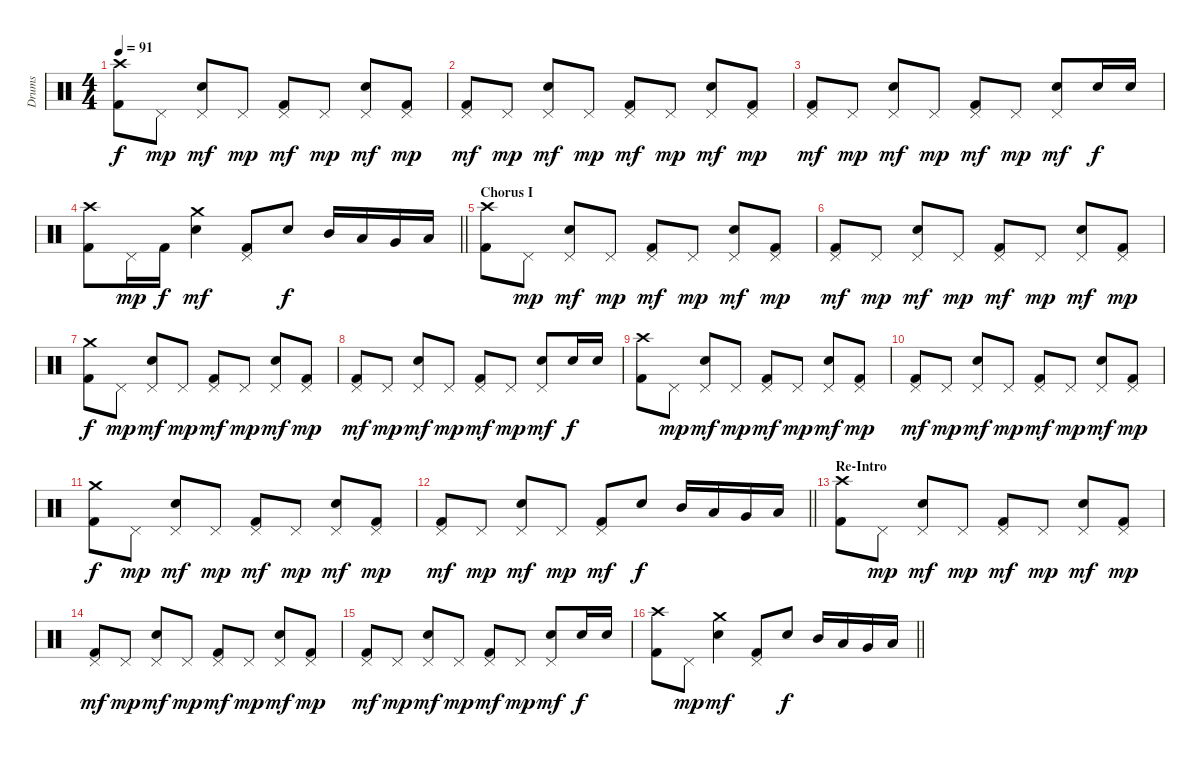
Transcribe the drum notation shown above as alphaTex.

\track ("Drums" "Drums") {instrument percussion}
\staff {score}
\articulation defaults
\ts (4 4)
\tempo 91
\clef neutral
\ks c
("Crash high (hit)" "Kick (hit) 2").8{dy f} "Pedal Hi-Hat (hit)".8{dy mp} ("Pedal Hi-Hat (hit)" "Snare (hit) 2").8{dy mf} "Pedal Hi-Hat (hit)".8{dy mp} ("Pedal Hi-Hat (hit)" "Kick (hit) 2").8{dy mf} "Pedal Hi-Hat (hit)".8{dy mp} ("Pedal Hi-Hat (hit)" "Snare (hit) 2").8{dy mf} ("Pedal Hi-Hat (hit)" "Kick (hit) 2").8{dy mp} |
("Pedal Hi-Hat (hit)" "Kick (hit) 2").8{dy mf} "Pedal Hi-Hat (hit)".8{dy mp} ("Pedal Hi-Hat (hit)" "Snare (hit) 2").8{dy mf} "Pedal Hi-Hat (hit)".8{dy mp} ("Pedal Hi-Hat (hit)" "Kick (hit) 2").8{dy mf} "Pedal Hi-Hat (hit)".8{dy mp} ("Pedal Hi-Hat (hit)" "Snare (hit) 2").8{dy mf} ("Pedal Hi-Hat (hit)" "Kick (hit) 2").8{dy mp} |
("Pedal Hi-Hat (hit)" "Kick (hit) 2").8{dy mf} "Pedal Hi-Hat (hit)".8{dy mp} ("Pedal Hi-Hat (hit)" "Snare (hit) 2").8{dy mf} "Pedal Hi-Hat (hit)".8{dy mp} ("Pedal Hi-Hat (hit)" "Kick (hit) 2").8{dy mf} "Pedal Hi-Hat (hit)".8{dy mp} ("Pedal Hi-Hat (hit)" "Snare (hit) 2").8{dy mf} "Snare (hit) 2".16{dy f} "Snare (hit) 2".16 |
\barLineRight lightlight
("Crash high (hit)" "Kick (hit) 2").8 "Pedal Hi-Hat (hit)".16{dy mp} "Kick (hit) 2".16{dy f} ("Crash medium (hit)" "Snare (hit) 2").4{dy mf} ("Pedal Hi-Hat (hit)" "Kick (hit) 2").8 "Snare (hit) 2".8{dy f} "Mid Tom (hit)".16 "Low Tom (hit)".16 "Very Low Tom (hit)".16 "Low Floor Tom (hit)".16 |
\section ("" "Chorus I")
("Crash high (hit)" "Kick (hit) 2").8 "Pedal Hi-Hat (hit)".8{dy mp} ("Pedal Hi-Hat (hit)" "Snare (hit) 2").8{dy mf} "Pedal Hi-Hat (hit)".8{dy mp} ("Pedal Hi-Hat (hit)" "Kick (hit) 2").8{dy mf} "Pedal Hi-Hat (hit)".8{dy mp} ("Pedal Hi-Hat (hit)" "Snare (hit) 2").8{dy mf} ("Pedal Hi-Hat (hit)" "Kick (hit) 2").8{dy mp} |
("Pedal Hi-Hat (hit)" "Kick (hit) 2").8{dy mf} "Pedal Hi-Hat (hit)".8{dy mp} ("Pedal Hi-Hat (hit)" "Snare (hit) 2").8{dy mf} "Pedal Hi-Hat (hit)".8{dy mp} ("Pedal Hi-Hat (hit)" "Kick (hit) 2").8{dy mf} "Pedal Hi-Hat (hit)".8{dy mp} ("Pedal Hi-Hat (hit)" "Snare (hit) 2").8{dy mf} ("Pedal Hi-Hat (hit)" "Kick (hit) 2").8{dy mp} |
("Crash medium (hit)" "Kick (hit) 2").8{dy f} "Pedal Hi-Hat (hit)".8{dy mp} ("Pedal Hi-Hat (hit)" "Snare (hit) 2").8{dy mf} "Pedal Hi-Hat (hit)".8{dy mp} ("Pedal Hi-Hat (hit)" "Kick (hit) 2").8{dy mf} "Pedal Hi-Hat (hit)".8{dy mp} ("Pedal Hi-Hat (hit)" "Snare (hit) 2").8{dy mf} ("Pedal Hi-Hat (hit)" "Kick (hit) 2").8{dy mp} |
("Pedal Hi-Hat (hit)" "Kick (hit) 2").8{dy mf} "Pedal Hi-Hat (hit)".8{dy mp} ("Pedal Hi-Hat (hit)" "Snare (hit) 2").8{dy mf} "Pedal Hi-Hat (hit)".8{dy mp} ("Pedal Hi-Hat (hit)" "Kick (hit) 2").8{dy mf} "Pedal Hi-Hat (hit)".8{dy mp} ("Pedal Hi-Hat (hit)" "Snare (hit) 2").8{dy mf} "Snare (hit) 2".16{dy f} "Snare (hit) 2".16 |
("Crash high (hit)" "Kick (hit) 2").8 "Pedal Hi-Hat (hit)".8{dy mp} ("Pedal Hi-Hat (hit)" "Snare (hit) 2").8{dy mf} "Pedal Hi-Hat (hit)".8{dy mp} ("Pedal Hi-Hat (hit)" "Kick (hit) 2").8{dy mf} "Pedal Hi-Hat (hit)".8{dy mp} ("Pedal Hi-Hat (hit)" "Snare (hit) 2").8{dy mf} ("Pedal Hi-Hat (hit)" "Kick (hit) 2").8{dy mp} |
("Pedal Hi-Hat (hit)" "Kick (hit) 2").8{dy mf} "Pedal Hi-Hat (hit)".8{dy mp} ("Pedal Hi-Hat (hit)" "Snare (hit) 2").8{dy mf} "Pedal Hi-Hat (hit)".8{dy mp} ("Pedal Hi-Hat (hit)" "Kick (hit) 2").8{dy mf} "Pedal Hi-Hat (hit)".8{dy mp} ("Pedal Hi-Hat (hit)" "Snare (hit) 2").8{dy mf} ("Pedal Hi-Hat (hit)" "Kick (hit) 2").8{dy mp} |
("Crash medium (hit)" "Kick (hit) 2").8{dy f} "Pedal Hi-Hat (hit)".8{dy mp} ("Pedal Hi-Hat (hit)" "Snare (hit) 2").8{dy mf} "Pedal Hi-Hat (hit)".8{dy mp} ("Pedal Hi-Hat (hit)" "Kick (hit) 2").8{dy mf} "Pedal Hi-Hat (hit)".8{dy mp} ("Pedal Hi-Hat (hit)" "Snare (hit) 2").8{dy mf} ("Pedal Hi-Hat (hit)" "Kick (hit) 2").8{dy mp} |
\barLineRight lightlight
("Pedal Hi-Hat (hit)" "Kick (hit) 2").8{dy mf} "Pedal Hi-Hat (hit)".8{dy mp} ("Pedal Hi-Hat (hit)" "Snare (hit) 2").8{dy mf} "Pedal Hi-Hat (hit)".8{dy mp} ("Pedal Hi-Hat (hit)" "Kick (hit) 2").8{dy mf} "Snare (hit) 2".8{dy f} "Mid Tom (hit)".16 "Low Tom (hit)".16 "Very Low Tom (hit)".16 "Low Floor Tom (hit)".16 |
\section ("" "Re-Intro")
("Crash high (hit)" "Kick (hit) 2").8 "Pedal Hi-Hat (hit)".8{dy mp} ("Pedal Hi-Hat (hit)" "Snare (hit) 2").8{dy mf} "Pedal Hi-Hat (hit)".8{dy mp} ("Pedal Hi-Hat (hit)" "Kick (hit) 2").8{dy mf} "Pedal Hi-Hat (hit)".8{dy mp} ("Pedal Hi-Hat (hit)" "Snare (hit) 2").8{dy mf} ("Pedal Hi-Hat (hit)" "Kick (hit) 2").8{dy mp} |
("Pedal Hi-Hat (hit)" "Kick (hit) 2").8{dy mf} "Pedal Hi-Hat (hit)".8{dy mp} ("Pedal Hi-Hat (hit)" "Snare (hit) 2").8{dy mf} "Pedal Hi-Hat (hit)".8{dy mp} ("Pedal Hi-Hat (hit)" "Kick (hit) 2").8{dy mf} "Pedal Hi-Hat (hit)".8{dy mp} ("Pedal Hi-Hat (hit)" "Snare (hit) 2").8{dy mf} ("Pedal Hi-Hat (hit)" "Kick (hit) 2").8{dy mp} |
("Pedal Hi-Hat (hit)" "Kick (hit) 2").8{dy mf} "Pedal Hi-Hat (hit)".8{dy mp} ("Pedal Hi-Hat (hit)" "Snare (hit) 2").8{dy mf} "Pedal Hi-Hat (hit)".8{dy mp} ("Pedal Hi-Hat (hit)" "Kick (hit) 2").8{dy mf} "Pedal Hi-Hat (hit)".8{dy mp} ("Pedal Hi-Hat (hit)" "Snare (hit) 2").8{dy mf} "Snare (hit) 2".16{dy f} "Snare (hit) 2".16 |
\barLineRight lightlight
("Crash high (hit)" "Kick (hit) 2").8 "Pedal Hi-Hat (hit)".8{dy mp} ("Crash medium (hit)" "Snare (hit) 2").4{dy mf} ("Pedal Hi-Hat (hit)" "Kick (hit) 2").8 "Snare (hit) 2".8{dy f} "Mid Tom (hit)".16 "Low Tom (hit)".16 "Very Low Tom (hit)".16 "Low Floor Tom (hit)".16
